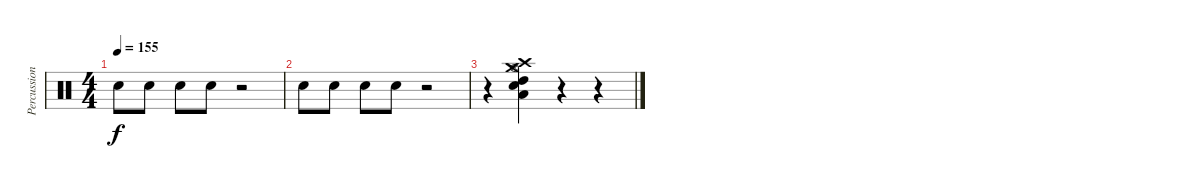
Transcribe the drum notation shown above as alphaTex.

\track ("Percussion" "Percussion") {instrument percussion}
\staff {score}
\articulation defaults
\ts (4 4)
\tempo 155
\clef neutral
\ks c "Electric Snare (hit)".8{dy f} "Electric Snare (hit)".8 "Electric Snare (hit)".8 "Electric Snare (hit)".8
r.2 |
"Electric Snare (hit)".8 "Electric Snare (hit)".8 "Electric Snare (hit)".8 "Electric Snare (hit)".8 r.2 |
r.4 ("Crash medium (hit)" "Crash high (hit)" "Hi-Hat (open)" "Electric Snare (hit)" "Low Floor Tom (hit)" "High Tom (hit)").4 r.4 r.4
